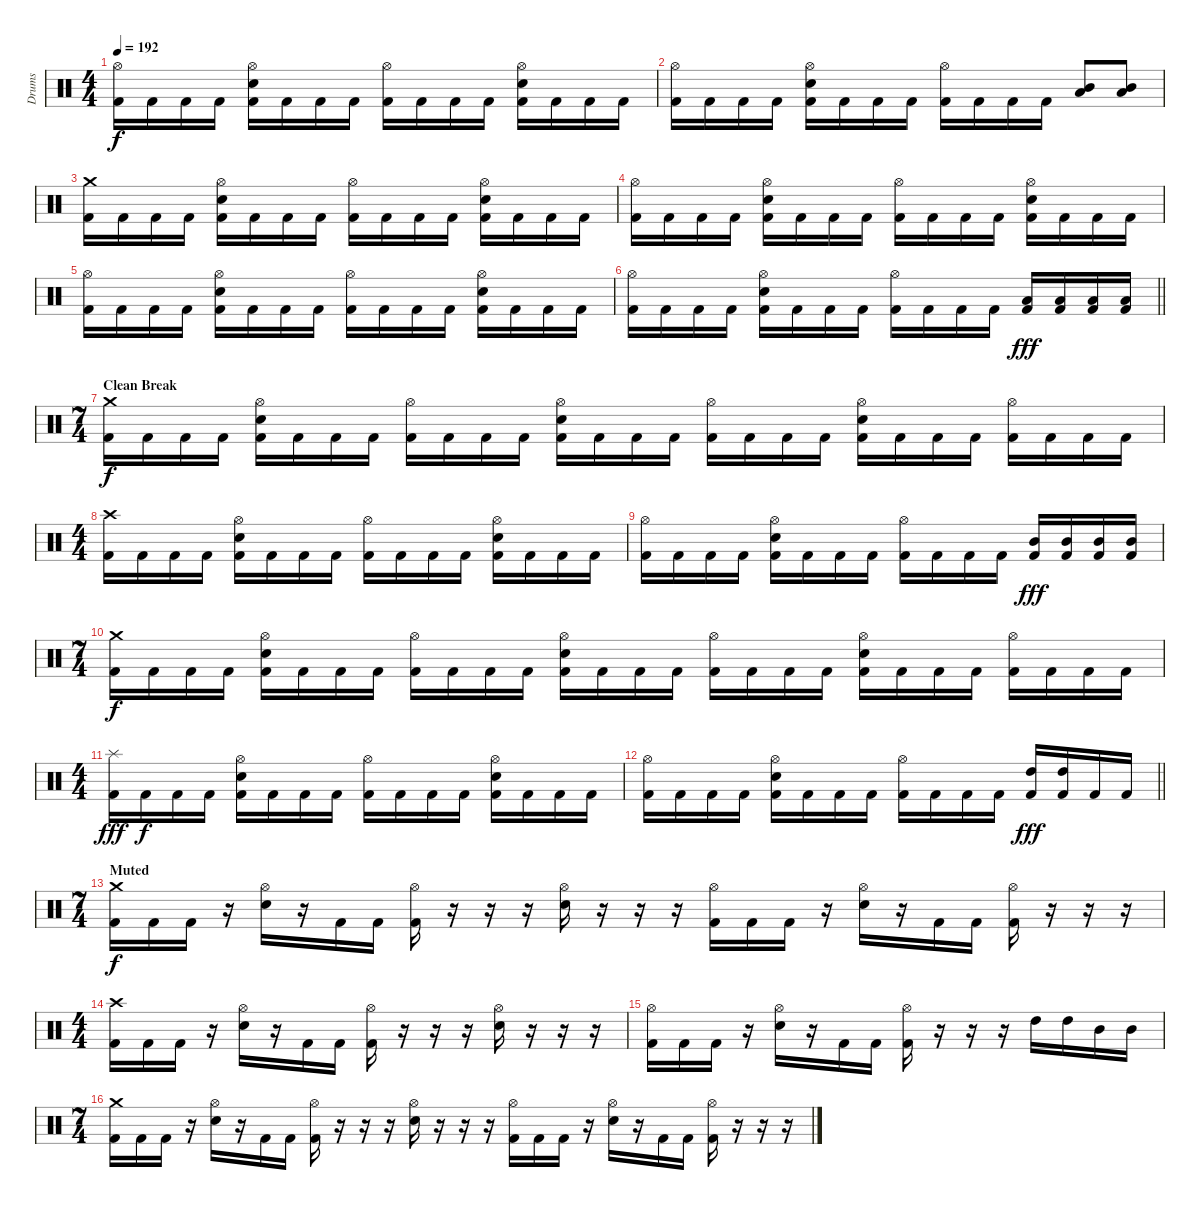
\track ("Drums" "Drums") {instrument percussion}
\staff {score}
\articulation defaults
\ts (4 4)
\tempo 192
\clef neutral
\ks c
("Hi-Hat (open)" "Kick (hit) 2").16{dy f} "Kick (hit) 2".16 "Kick (hit) 2".16 "Kick (hit) 2".16 ("Hi-Hat (open)" "Electric Snare (hit)" "Kick (hit) 2").16 "Kick (hit) 2".16 "Kick (hit) 2".16 "Kick (hit) 2".16 ("Hi-Hat (open)" "Kick (hit) 2").16 "Kick (hit) 2".16 "Kick (hit) 2".16 "Kick (hit) 2".16 ("Hi-Hat (open)" "Electric Snare (hit)" "Kick (hit) 2").16 "Kick (hit) 2".16 "Kick (hit) 2".16 "Kick (hit) 2".16 |
("Hi-Hat (open)" "Kick (hit) 2").16 "Kick (hit) 2".16 "Kick (hit) 2".16 "Kick (hit) 2".16 ("Hi-Hat (open)" "Electric Snare (hit)" "Kick (hit) 2").16 "Kick (hit) 2".16 "Kick (hit) 2".16 "Kick (hit) 2".16 ("Hi-Hat (open)" "Kick (hit) 2").16 "Kick (hit) 2".16 "Kick (hit) 2".16 "Kick (hit) 2".16 ("Mid Tom (hit)" "Low Tom (hit)").8 ("Mid Tom (hit)" "Low Tom (hit)").8 |
("Crash medium (hit)" "Kick (hit) 2").16 "Kick (hit) 2".16 "Kick (hit) 2".16 "Kick (hit) 2".16 ("Hi-Hat (open)" "Electric Snare (hit)" "Kick (hit) 2").16 "Kick (hit) 2".16 "Kick (hit) 2".16 "Kick (hit) 2".16 ("Hi-Hat (open)" "Kick (hit) 2").16 "Kick (hit) 2".16 "Kick (hit) 2".16 "Kick (hit) 2".16 ("Hi-Hat (open)" "Electric Snare (hit)" "Kick (hit) 2").16 "Kick (hit) 2".16 "Kick (hit) 2".16 "Kick (hit) 2".16 |
("Hi-Hat (open)" "Kick (hit) 2").16 "Kick (hit) 2".16 "Kick (hit) 2".16 "Kick (hit) 2".16 ("Hi-Hat (open)" "Electric Snare (hit)" "Kick (hit) 2").16 "Kick (hit) 2".16 "Kick (hit) 2".16 "Kick (hit) 2".16 ("Hi-Hat (open)" "Kick (hit) 2").16 "Kick (hit) 2".16 "Kick (hit) 2".16 "Kick (hit) 2".16 ("Hi-Hat (open)" "Electric Snare (hit)" "Kick (hit) 2").16 "Kick (hit) 2".16 "Kick (hit) 2".16 "Kick (hit) 2".16 |
("Hi-Hat (open)" "Kick (hit) 2").16 "Kick (hit) 2".16 "Kick (hit) 2".16 "Kick (hit) 2".16 ("Hi-Hat (open)" "Electric Snare (hit)" "Kick (hit) 2").16 "Kick (hit) 2".16 "Kick (hit) 2".16 "Kick (hit) 2".16 ("Hi-Hat (open)" "Kick (hit) 2").16 "Kick (hit) 2".16 "Kick (hit) 2".16 "Kick (hit) 2".16 ("Hi-Hat (open)" "Electric Snare (hit)" "Kick (hit) 2").16 "Kick (hit) 2".16 "Kick (hit) 2".16 "Kick (hit) 2".16 |
\barLineRight lightlight
("Hi-Hat (open)" "Kick (hit) 2").16 "Kick (hit) 2".16 "Kick (hit) 2".16 "Kick (hit) 2".16 ("Hi-Hat (open)" "Electric Snare (hit)" "Kick (hit) 2").16 "Kick (hit) 2".16 "Kick (hit) 2".16 "Kick (hit) 2".16 ("Hi-Hat (open)" "Kick (hit) 2").16 "Kick (hit) 2".16 "Kick (hit) 2".16 "Kick (hit) 2".16 ("Low Tom (hit)" "Kick (hit) 2").16{dy fff} ("Low Tom (hit)" "Kick (hit) 2").16 ("Low Tom (hit)" "Kick (hit) 2").16 ("Low Tom (hit)" "Kick (hit) 2").16 |
\ts (7 4)
\section ("" "Clean Break")
("Crash medium (hit)" "Kick (hit) 2").16{dy f} "Kick (hit) 2".16 "Kick (hit) 2".16 "Kick (hit) 2".16 ("Hi-Hat (open)" "Electric Snare (hit)" "Kick (hit) 2").16 "Kick (hit) 2".16 "Kick (hit) 2".16 "Kick (hit) 2".16 ("Hi-Hat (open)" "Kick (hit) 2").16 "Kick (hit) 2".16 "Kick (hit) 2".16 "Kick (hit) 2".16 ("Hi-Hat (open)" "Electric Snare (hit)" "Kick (hit) 2").16 "Kick (hit) 2".16 "Kick (hit) 2".16 "Kick (hit) 2".16 ("Hi-Hat (open)" "Kick (hit) 2").16 "Kick (hit) 2".16 "Kick (hit) 2".16 "Kick (hit) 2".16 ("Hi-Hat (open)" "Electric Snare (hit)" "Kick (hit) 2").16 "Kick (hit) 2".16 "Kick (hit) 2".16 "Kick (hit) 2".16 ("Hi-Hat (open)" "Kick (hit) 2").16 "Kick (hit) 2".16 "Kick (hit) 2".16 "Kick (hit) 2".16 |
\ts (4 4)
("Crash high (hit)" "Kick (hit) 2").16 "Kick (hit) 2".16 "Kick (hit) 2".16 "Kick (hit) 2".16 ("Hi-Hat (open)" "Electric Snare (hit)" "Kick (hit) 2").16 "Kick (hit) 2".16 "Kick (hit) 2".16 "Kick (hit) 2".16 ("Hi-Hat (open)" "Kick (hit) 2").16 "Kick (hit) 2".16 "Kick (hit) 2".16 "Kick (hit) 2".16 ("Hi-Hat (open)" "Electric Snare (hit)" "Kick (hit) 2").16 "Kick (hit) 2".16 "Kick (hit) 2".16 "Kick (hit) 2".16 |
("Hi-Hat (open)" "Kick (hit) 2").16 "Kick (hit) 2".16 "Kick (hit) 2".16 "Kick (hit) 2".16 ("Hi-Hat (open)" "Electric Snare (hit)" "Kick (hit) 2").16 "Kick (hit) 2".16 "Kick (hit) 2".16 "Kick (hit) 2".16 ("Hi-Hat (open)" "Kick (hit) 2").16 "Kick (hit) 2".16 "Kick (hit) 2".16 "Kick (hit) 2".16 ("Mid Tom (hit)" "Kick (hit) 2").16{dy fff} ("Mid Tom (hit)" "Kick (hit) 2").16 ("Mid Tom (hit)" "Kick (hit) 2").16 ("Mid Tom (hit)" "Kick (hit) 2").16 |
\ts (7 4)
("Crash medium (hit)" "Kick (hit) 2").16{dy f} "Kick (hit) 2".16 "Kick (hit) 2".16 "Kick (hit) 2".16 ("Hi-Hat (open)" "Electric Snare (hit)" "Kick (hit) 2").16 "Kick (hit) 2".16 "Kick (hit) 2".16 "Kick (hit) 2".16 ("Hi-Hat (open)" "Kick (hit) 2").16 "Kick (hit) 2".16 "Kick (hit) 2".16 "Kick (hit) 2".16 ("Hi-Hat (open)" "Electric Snare (hit)" "Kick (hit) 2").16 "Kick (hit) 2".16 "Kick (hit) 2".16 "Kick (hit) 2".16 ("Hi-Hat (open)" "Kick (hit) 2").16 "Kick (hit) 2".16 "Kick (hit) 2".16 "Kick (hit) 2".16 ("Hi-Hat (open)" "Electric Snare (hit)" "Kick (hit) 2").16 "Kick (hit) 2".16 "Kick (hit) 2".16 "Kick (hit) 2".16 ("Hi-Hat (open)" "Kick (hit) 2").16 "Kick (hit) 2".16 "Kick (hit) 2".16 "Kick (hit) 2".16 |
\ts (4 4)
("Splash (hit)" "Kick (hit) 2").16{dy fff} "Kick (hit) 2".16{dy f} "Kick (hit) 2".16 "Kick (hit) 2".16 ("Hi-Hat (open)" "Electric Snare (hit)" "Kick (hit) 2").16 "Kick (hit) 2".16 "Kick (hit) 2".16 "Kick (hit) 2".16 ("Hi-Hat (open)" "Kick (hit) 2").16 "Kick (hit) 2".16 "Kick (hit) 2".16 "Kick (hit) 2".16 ("Hi-Hat (open)" "Electric Snare (hit)" "Kick (hit) 2").16 "Kick (hit) 2".16 "Kick (hit) 2".16 "Kick (hit) 2".16 |
\barLineRight lightlight
("Hi-Hat (open)" "Kick (hit) 2").16 "Kick (hit) 2".16 "Kick (hit) 2".16 "Kick (hit) 2".16 ("Hi-Hat (open)" "Electric Snare (hit)" "Kick (hit) 2").16 "Kick (hit) 2".16 "Kick (hit) 2".16 "Kick (hit) 2".16 ("Hi-Hat (open)" "Kick (hit) 2").16 "Kick (hit) 2".16 "Kick (hit) 2".16 "Kick (hit) 2".16 ("High Tom (hit)" "Kick (hit) 2").16{dy fff} ("High Tom (hit)" "Kick (hit) 2").16 "Kick (hit) 2".16 "Kick (hit) 2".16 |
\ts (7 4)
\section ("" "Muted")
("Crash medium (hit)" "Kick (hit) 2").16{dy f} "Kick (hit) 2".16 "Kick (hit) 2".16 r.16 ("Hi-Hat (open)" "Electric Snare (hit)").16 r.16 "Kick (hit) 2".16 "Kick (hit) 2".16 ("Hi-Hat (open)" "Kick (hit) 2").16 r.16 r.16 r.16 ("Hi-Hat (open)" "Electric Snare (hit)").16 r.16 r.16 r.16 ("Hi-Hat (open)" "Kick (hit) 2").16 "Kick (hit) 2".16 "Kick (hit) 2".16 r.16 ("Hi-Hat (open)" "Electric Snare (hit)").16 r.16 "Kick (hit) 2".16 "Kick (hit) 2".16 ("Hi-Hat (open)" "Kick (hit) 2").16 r.16 r.16 r.16 |
\ts (4 4)
("Crash high (hit)" "Kick (hit) 2").16 "Kick (hit) 2".16 "Kick (hit) 2".16 r.16 ("Hi-Hat (open)" "Electric Snare (hit)").16 r.16 "Kick (hit) 2".16 "Kick (hit) 2".16 ("Hi-Hat (open)" "Kick (hit) 2").16 r.16 r.16 r.16 ("Hi-Hat (open)" "Electric Snare (hit)").16 r.16 r.16 r.16 |
("Hi-Hat (open)" "Kick (hit) 2").16 "Kick (hit) 2".16 "Kick (hit) 2".16 r.16 ("Hi-Hat (open)" "Electric Snare (hit)").16 r.16 "Kick (hit) 2".16 "Kick (hit) 2".16 ("Hi-Hat (open)" "Kick (hit) 2").16 r.16 r.16 r.16 "High Tom (hit)".16 "High Tom (hit)".16 "Mid Tom (hit)".16 "Mid Tom (hit)".16 |
\ts (7 4)
("Crash medium (hit)" "Kick (hit) 2").16 "Kick (hit) 2".16 "Kick (hit) 2".16 r.16 ("Hi-Hat (open)" "Electric Snare (hit)").16 r.16 "Kick (hit) 2".16 "Kick (hit) 2".16 ("Hi-Hat (open)" "Kick (hit) 2").16 r.16 r.16 r.16 ("Hi-Hat (open)" "Electric Snare (hit)").16 r.16 r.16 r.16 ("Hi-Hat (open)" "Kick (hit) 2").16 "Kick (hit) 2".16 "Kick (hit) 2".16 r.16 ("Hi-Hat (open)" "Electric Snare (hit)").16 r.16 "Kick (hit) 2".16 "Kick (hit) 2".16 ("Hi-Hat (open)" "Kick (hit) 2").16 r.16 r.16 r.16
